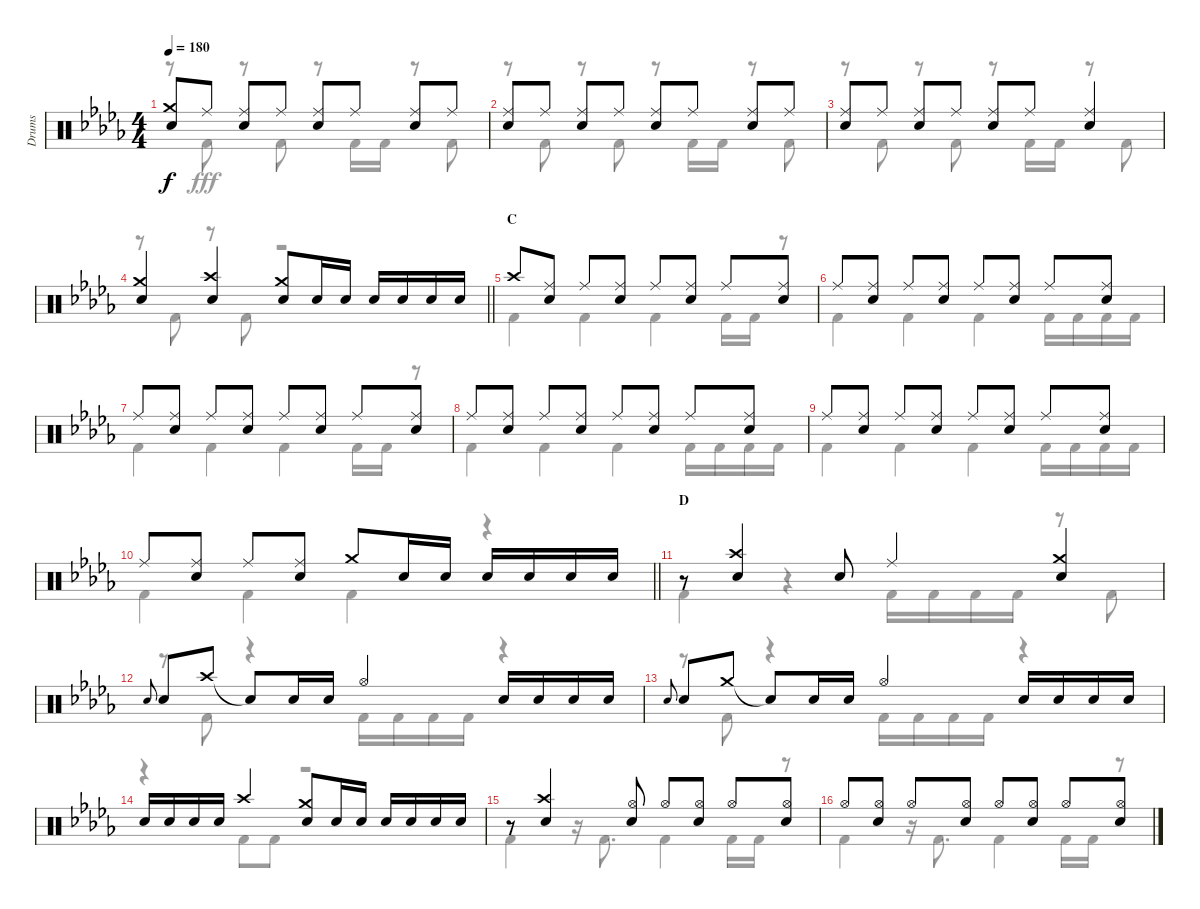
\track ("Drums" "Drums") {instrument percussion}
\staff {score}
\articulation defaults
\voice
\ts (4 4)
\tempo 180
\clef neutral
\ks db
("Crash medium (hit)" "Snare (hit) 2").8{dy f} "Ride (middle)".8 ("Ride (middle)" "Snare (hit) 2").8 "Ride (middle)".8 ("Ride (middle)" "Snare (hit) 2").8 "Ride (middle)".8 ("Ride (middle)" "Snare (hit) 2").8 "Ride (middle)".8 |
("Ride (middle)" "Snare (hit) 2").8 "Ride (middle)".8 ("Ride (middle)" "Snare (hit) 2").8 "Ride (middle)".8 ("Ride (middle)" "Snare (hit) 2").8 "Ride (middle)".8 ("Ride (middle)" "Snare (hit) 2").8 "Ride (middle)".8 |
("Ride (middle)" "Snare (hit) 2").8 "Ride (middle)".8 ("Ride (middle)" "Snare (hit) 2").8 "Ride (middle)".8 ("Ride (middle)" "Snare (hit) 2").8 "Ride (middle)".8 ("Ride (middle)" "Snare (hit) 2").4 |
\barLineRight lightlight
("Crash medium (hit)" "Snare (hit) 2").4 ("Crash high (hit)" "Snare (hit) 2").4 ("Crash medium (hit)" "Snare (hit) 2").8 "Snare (hit) 2".16 "Snare (hit) 2".16 "Snare (hit) 2".16 "Snare (hit) 2".16 "Snare (hit) 2".16 "Snare (hit) 2".16 |
\section ("" "C")
"Crash high (hit)".8 ("Ride (middle)" "Snare (hit) 2").8 "Ride (middle)".8 ("Ride (middle)" "Snare (hit) 2").8 "Ride (middle)".8 ("Ride (middle)" "Snare (hit) 2").8 "Ride (middle)".8 ("Ride (middle)" "Snare (hit) 2").8 |
"Ride (middle)".8 ("Ride (middle)" "Snare (hit) 2").8 "Ride (middle)".8 ("Ride (middle)" "Snare (hit) 2").8 "Ride (middle)".8 ("Ride (middle)" "Snare (hit) 2").8 "Ride (middle)".8 ("Ride (middle)" "Snare (hit) 2").8 |
"Ride (middle)".8 ("Ride (middle)" "Snare (hit) 2").8 "Ride (middle)".8 ("Ride (middle)" "Snare (hit) 2").8 "Ride (middle)".8 ("Ride (middle)" "Snare (hit) 2").8 "Ride (middle)".8 ("Ride (middle)" "Snare (hit) 2").8 |
"Ride (middle)".8 ("Ride (middle)" "Snare (hit) 2").8 "Ride (middle)".8 ("Ride (middle)" "Snare (hit) 2").8 "Ride (middle)".8 ("Ride (middle)" "Snare (hit) 2").8 "Ride (middle)".8 ("Ride (middle)" "Snare (hit) 2").8 |
"Ride (middle)".8 ("Ride (middle)" "Snare (hit) 2").8 "Ride (middle)".8 ("Ride (middle)" "Snare (hit) 2").8 "Ride (middle)".8 ("Ride (middle)" "Snare (hit) 2").8 "Ride (middle)".8 ("Ride (middle)" "Snare (hit) 2").8 |
\barLineRight lightlight "Ride (middle)".8
("Ride (middle)" "Snare (hit) 2").8 "Ride (middle)".8 ("Ride (middle)" "Snare (hit) 2").8 "Crash medium (hit)".8 "Snare (hit) 2".16 "Snare (hit) 2".16 "Snare (hit) 2".16 "Snare (hit) 2".16 "Snare (hit) 2".16 "Snare (hit) 2".16 |
\section ("" "D")
r.8 ("Crash high (hit)" "Snare (hit) 2").4 "Snare (hit) 2".8 "Ride (middle)".4 ("Crash medium (hit)" "Snare (hit) 2").4 |
"Snare (hit) 2".8{gr onbeat} "Snare (hit) 2".8 "Crash high (hit)".8 "Snare (hit)"{t}.8 "Snare (hit) 2".16 "Snare (hit) 2".16 "Hi-Hat (open)".4 "Snare (hit) 2".16 "Snare (hit) 2".16 "Snare (hit) 2".16 "Snare (hit) 2".16 |
"Snare (hit) 2".8{gr onbeat} "Snare (hit) 2".8 "Crash medium (hit)".8 "Snare (hit)"{t}.8 "Snare (hit) 2".16 "Snare (hit) 2".16 "Hi-Hat (open)".4 "Snare (hit) 2".16 "Snare (hit) 2".16 "Snare (hit) 2".16 "Snare (hit) 2".16 |
"Snare (hit) 2".16 "Snare (hit) 2".16 "Snare (hit) 2".16 "Snare (hit) 2".16 "Crash high (hit)".4 ("Crash medium (hit)" "Snare (hit) 2").8 "Snare (hit) 2".16 "Snare (hit) 2".16 "Snare (hit) 2".16 "Snare (hit) 2".16 "Snare (hit) 2".16 "Snare (hit) 2".16 |
r.8 ("Crash high (hit)" "Snare (hit) 2").4 ("Hi-Hat (open)" "Snare (hit) 2").8 "Hi-Hat (open)".8 ("Hi-Hat (open)" "Snare (hit) 2").8 "Hi-Hat (open)".8 ("Hi-Hat (open)" "Snare (hit) 2").8 |
"Hi-Hat (open)".8 ("Hi-Hat (open)" "Snare (hit) 2").8 "Hi-Hat (open)".8 ("Hi-Hat (open)" "Snare (hit) 2").8 "Hi-Hat (open)".8 ("Hi-Hat (open)" "Snare (hit) 2").8 "Hi-Hat (open)".8 ("Hi-Hat (open)" "Snare (hit) 2").8
\voice
\clef neutral
\ottava regular
\simile none
\ks db
r.8{dy fff} "Kick (hit) 2".8 r.8 "Kick (hit) 2".8 r.8 "Kick (hit) 2".16 "Kick (hit) 2".16 r.8 "Kick (hit) 2".8 |
r.8 "Kick (hit) 2".8 r.8 "Kick (hit) 2".8 r.8 "Kick (hit) 2".16 "Kick (hit) 2".16 r.8 "Kick (hit) 2".8 |
r.8 "Kick (hit) 2".8 r.8 "Kick (hit) 2".8 r.8 "Kick (hit) 2".16 "Kick (hit) 2".16 r.8 "Kick (hit) 2".8 |
\barLineRight lightlight
r.8 "Kick (hit) 2".8 r.8 "Kick (hit) 2".8 r.2 |
"Kick (hit) 2".4 "Kick (hit) 2".4 "Kick (hit) 2".4 "Kick (hit) 2".16 "Kick (hit) 2".16 r.8 |
"Kick (hit) 2".4 "Kick (hit) 2".4 "Kick (hit) 2".4 "Kick (hit) 2".16 "Kick (hit) 2".16 "Kick (hit) 2".16 "Kick (hit) 2".16 |
"Kick (hit) 2".4 "Kick (hit) 2".4 "Kick (hit) 2".4 "Kick (hit) 2".16 "Kick (hit) 2".16 r.8 |
"Kick (hit) 2".4 "Kick (hit) 2".4 "Kick (hit) 2".4 "Kick (hit) 2".16 "Kick (hit) 2".16 "Kick (hit) 2".16 "Kick (hit) 2".16 |
"Kick (hit) 2".4 "Kick (hit) 2".4 "Kick (hit) 2".4 "Kick (hit) 2".16 "Kick (hit) 2".16 "Kick (hit) 2".16 "Kick (hit) 2".16 |
\barLineRight lightlight "Kick (hit) 2".4 "Kick (hit) 2".4 "Kick (hit) 2".4
r.4 |
"Kick (hit) 2".4 r.4 "Kick (hit) 2".16 "Kick (hit) 2".16 "Kick (hit) 2".16 "Kick (hit) 2".16 r.8 "Kick (hit) 2".8 |
r.8 "Kick (hit) 2".8 r.4 "Kick (hit) 2".16 "Kick (hit) 2".16 "Kick (hit) 2".16 "Kick (hit) 2".16 r.4 |
r.8 "Kick (hit) 2".8 r.4 "Kick (hit) 2".16 "Kick (hit) 2".16 "Kick (hit) 2".16 "Kick (hit) 2".16 r.4 |
r.4 "Kick (hit) 2".8 "Kick (hit) 2".8 r.2 |
"Kick (hit) 2".4 r.16 "Kick (hit) 2".8{d} "Kick (hit) 2".4 "Kick (hit) 2".16 "Kick (hit) 2".16 r.8 |
"Kick (hit) 2".4 r.16 "Kick (hit) 2".8{d} "Kick (hit) 2".4 "Kick (hit) 2".16 "Kick (hit) 2".16 r.8
